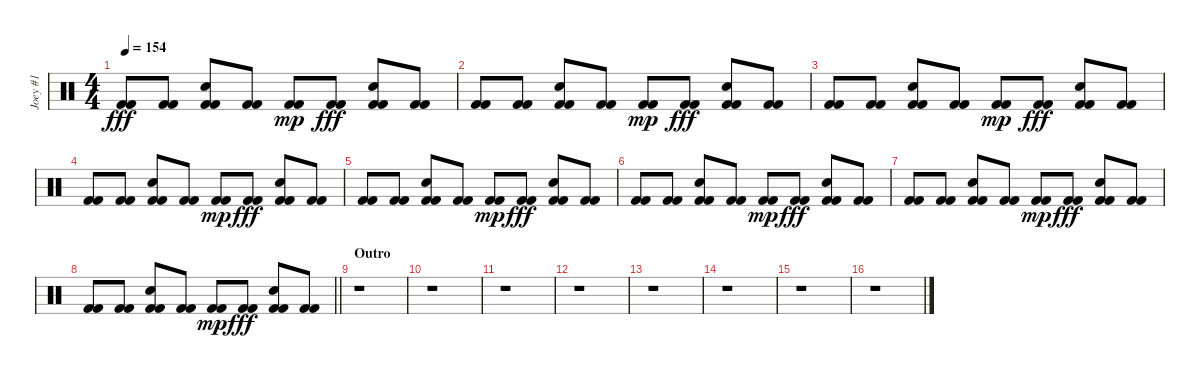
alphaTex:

\track ("Joey #1" "Joey #1") {instrument percussion}
\staff {score}
\articulation defaults
\ts (4 4)
\tempo 154
\clef neutral
\ks c
("Kick (hit) 2" "Kick (hit) 2").8{dy fff} ("Kick (hit) 2" "Kick (hit) 2").8 ("Snare (hit) 2" "Kick (hit) 2" "Kick (hit) 2").8 ("Kick (hit) 2" "Kick (hit) 2").8 ("Kick (hit) 2" "Kick (hit) 2").8{dy mp} ("Kick (hit) 2" "Kick (hit) 2").8{dy fff} ("Snare (hit) 2" "Kick (hit) 2" "Kick (hit) 2").8 ("Kick (hit) 2" "Kick (hit) 2").8 |
("Kick (hit) 2" "Kick (hit) 2").8 ("Kick (hit) 2" "Kick (hit) 2").8 ("Snare (hit) 2" "Kick (hit) 2" "Kick (hit) 2").8 ("Kick (hit) 2" "Kick (hit) 2").8 ("Kick (hit) 2" "Kick (hit) 2").8{dy mp} ("Kick (hit) 2" "Kick (hit) 2").8{dy fff} ("Snare (hit) 2" "Kick (hit) 2" "Kick (hit) 2").8 ("Kick (hit) 2" "Kick (hit) 2").8 |
("Kick (hit) 2" "Kick (hit) 2").8 ("Kick (hit) 2" "Kick (hit) 2").8 ("Snare (hit) 2" "Kick (hit) 2" "Kick (hit) 2").8 ("Kick (hit) 2" "Kick (hit) 2").8 ("Kick (hit) 2" "Kick (hit) 2").8{dy mp} ("Kick (hit) 2" "Kick (hit) 2").8{dy fff} ("Snare (hit) 2" "Kick (hit) 2" "Kick (hit) 2").8 ("Kick (hit) 2" "Kick (hit) 2").8 |
("Kick (hit) 2" "Kick (hit) 2").8 ("Kick (hit) 2" "Kick (hit) 2").8 ("Snare (hit) 2" "Kick (hit) 2" "Kick (hit) 2").8 ("Kick (hit) 2" "Kick (hit) 2").8 ("Kick (hit) 2" "Kick (hit) 2").8{dy mp} ("Kick (hit) 2" "Kick (hit) 2").8{dy fff} ("Snare (hit) 2" "Kick (hit) 2" "Kick (hit) 2").8 ("Kick (hit) 2" "Kick (hit) 2").8 |
("Kick (hit) 2" "Kick (hit) 2").8 ("Kick (hit) 2" "Kick (hit) 2").8 ("Snare (hit) 2" "Kick (hit) 2" "Kick (hit) 2").8 ("Kick (hit) 2" "Kick (hit) 2").8 ("Kick (hit) 2" "Kick (hit) 2").8{dy mp} ("Kick (hit) 2" "Kick (hit) 2").8{dy fff} ("Snare (hit) 2" "Kick (hit) 2" "Kick (hit) 2").8 ("Kick (hit) 2" "Kick (hit) 2").8 |
("Kick (hit) 2" "Kick (hit) 2").8 ("Kick (hit) 2" "Kick (hit) 2").8 ("Snare (hit) 2" "Kick (hit) 2" "Kick (hit) 2").8 ("Kick (hit) 2" "Kick (hit) 2").8 ("Kick (hit) 2" "Kick (hit) 2").8{dy mp} ("Kick (hit) 2" "Kick (hit) 2").8{dy fff} ("Snare (hit) 2" "Kick (hit) 2" "Kick (hit) 2").8 ("Kick (hit) 2" "Kick (hit) 2").8 |
("Kick (hit) 2" "Kick (hit) 2").8 ("Kick (hit) 2" "Kick (hit) 2").8 ("Snare (hit) 2" "Kick (hit) 2" "Kick (hit) 2").8 ("Kick (hit) 2" "Kick (hit) 2").8 ("Kick (hit) 2" "Kick (hit) 2").8{dy mp} ("Kick (hit) 2" "Kick (hit) 2").8{dy fff} ("Snare (hit) 2" "Kick (hit) 2" "Kick (hit) 2").8 ("Kick (hit) 2" "Kick (hit) 2").8 |
\barLineRight lightlight
("Kick (hit) 2" "Kick (hit) 2").8 ("Kick (hit) 2" "Kick (hit) 2").8 ("Snare (hit) 2" "Kick (hit) 2" "Kick (hit) 2").8 ("Kick (hit) 2" "Kick (hit) 2").8 ("Kick (hit) 2" "Kick (hit) 2").8{dy mp} ("Kick (hit) 2" "Kick (hit) 2").8{dy fff} ("Snare (hit) 2" "Kick (hit) 2" "Kick (hit) 2").8 ("Kick (hit) 2" "Kick (hit) 2").8 |
\section ("" "Outro")
r.1 |
r.1 |
r.1 |
r.1 |
r.1 |
r.1 |
r.1 |
r.1
